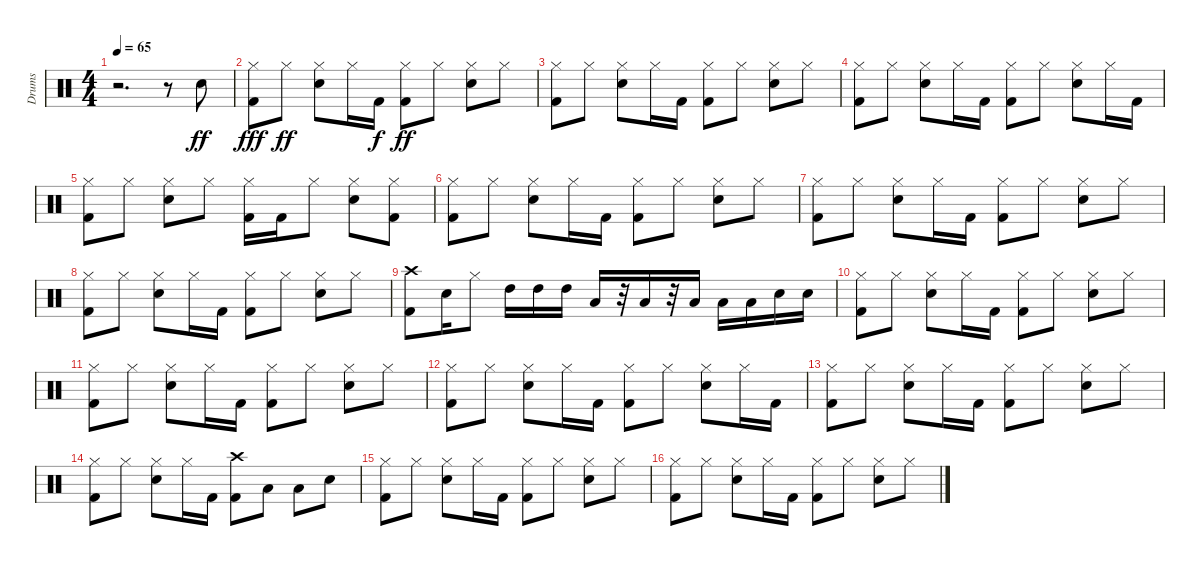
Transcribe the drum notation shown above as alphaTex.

\track ("Drums" "Drums") {instrument percussion}
\staff {score}
\articulation defaults
\ts (4 4)
\tempo 65
\clef neutral
\ks c
r.2{d dy ff} r.8 "Electric Snare (hit)".8 |
("Hi-Hat (closed)" "Kick (hit) 2").8{dy fff} "Hi-Hat (closed)".8{dy ff} ("Snare (hit) 2" "Hi-Hat (closed)").8 "Hi-Hat (closed)".16 "Kick (hit) 2".16{dy f} ("Kick (hit) 2" "Hi-Hat (closed)").8{dy ff} "Hi-Hat (closed)".8 ("Hi-Hat (closed)" "Snare (hit) 2").8 "Hi-Hat (closed)".8 |
("Kick (hit) 2" "Hi-Hat (closed)").8 "Hi-Hat (closed)".8 ("Snare (hit) 2" "Hi-Hat (closed)").8 "Hi-Hat (closed)".16 "Kick (hit) 2".16 ("Kick (hit) 2" "Hi-Hat (closed)").8 "Hi-Hat (closed)".8 ("Hi-Hat (closed)" "Snare (hit) 2").8 "Hi-Hat (closed)".8 |
("Kick (hit) 2" "Hi-Hat (closed)").8 "Hi-Hat (closed)".8 ("Snare (hit) 2" "Hi-Hat (closed)").8 "Hi-Hat (closed)".16 "Kick (hit) 2".16 ("Kick (hit) 2" "Hi-Hat (closed)").8 "Hi-Hat (closed)".8 ("Hi-Hat (closed)" "Snare (hit) 2").8 "Hi-Hat (closed)".16 "Kick (hit) 2".16 |
("Kick (hit) 2" "Hi-Hat (closed)").8 "Hi-Hat (closed)".8 ("Snare (hit) 2" "Hi-Hat (closed)").8 "Hi-Hat (closed)".8 ("Kick (hit) 2" "Hi-Hat (closed)").16 "Kick (hit) 2".16 "Hi-Hat (closed)".8 ("Hi-Hat (closed)" "Snare (hit) 2").8 ("Kick (hit) 2" "Hi-Hat (closed)").8 |
("Kick (hit) 2" "Hi-Hat (closed)").8 "Hi-Hat (closed)".8 ("Snare (hit) 2" "Hi-Hat (closed)").8 "Hi-Hat (closed)".16 "Kick (hit) 2".16 ("Kick (hit) 2" "Hi-Hat (closed)").8 "Hi-Hat (closed)".8 ("Hi-Hat (closed)" "Snare (hit) 2").8 "Hi-Hat (closed)".8 |
("Kick (hit) 2" "Hi-Hat (closed)").8 "Hi-Hat (closed)".8 ("Snare (hit) 2" "Hi-Hat (closed)").8 "Hi-Hat (closed)".16 "Kick (hit) 2".16 ("Kick (hit) 2" "Hi-Hat (closed)").8 "Hi-Hat (closed)".8 ("Hi-Hat (closed)" "Snare (hit) 2").8 "Hi-Hat (closed)".8 |
("Hi-Hat (closed)" "Kick (hit) 2").8 "Hi-Hat (closed)".8 ("Snare (hit) 2" "Hi-Hat (closed)").8 "Hi-Hat (closed)".16 "Kick (hit) 2".16 ("Hi-Hat (closed)" "Kick (hit) 2").8 "Hi-Hat (closed)".8 ("Hi-Hat (closed)" "Snare (hit) 2").8 "Hi-Hat (closed)".8 |
("Crash high (hit)" "Kick (hit) 2").8 "Electric Snare (hit)".16 "Hi-Hat (closed)".8 "High Tom (hit)".16 "High Tom (hit)".16 "High Tom (hit)".16 "Low Tom (hit)".16 r.32 "Low Tom (hit)".16 r.32 "Low Floor Tom (hit)".16 "Low Floor Tom (hit)".16 "Low Floor Tom (hit)".16 "Snare (hit) 2".16 "Snare (hit) 2".16 |
("Hi-Hat (closed)" "Kick (hit) 2").8 "Hi-Hat (closed)".8 ("Snare (hit) 2" "Hi-Hat (closed)").8 "Hi-Hat (closed)".16 "Kick (hit) 2".16 ("Hi-Hat (closed)" "Kick (hit) 2").8 "Hi-Hat (closed)".8 ("Hi-Hat (closed)" "Snare (hit) 2").8 "Hi-Hat (closed)".8 |
("Hi-Hat (closed)" "Kick (hit) 2").8 "Hi-Hat (closed)".8 ("Snare (hit) 2" "Hi-Hat (closed)").8 "Hi-Hat (closed)".16 "Kick (hit) 2".16 ("Hi-Hat (closed)" "Kick (hit) 2").8 "Hi-Hat (closed)".8 ("Hi-Hat (closed)" "Snare (hit) 2").8 "Hi-Hat (closed)".8 |
("Hi-Hat (closed)" "Kick (hit) 2").8 "Hi-Hat (closed)".8 ("Snare (hit) 2" "Hi-Hat (closed)").8 "Hi-Hat (closed)".16 "Kick (hit) 2".16 ("Hi-Hat (closed)" "Kick (hit) 2").8 "Hi-Hat (closed)".8 ("Hi-Hat (closed)" "Snare (hit) 2").8 "Hi-Hat (closed)".16 "Kick (hit) 2".16 |
("Hi-Hat (closed)" "Kick (hit) 2").8 "Hi-Hat (closed)".8 ("Snare (hit) 2" "Hi-Hat (closed)").8 "Hi-Hat (closed)".16 "Kick (hit) 2".16 ("Hi-Hat (closed)" "Kick (hit) 2").8 "Hi-Hat (closed)".8 ("Hi-Hat (closed)" "Snare (hit) 2").8 "Hi-Hat (closed)".8 |
("Hi-Hat (closed)" "Kick (hit) 2").8 "Hi-Hat (closed)".8 ("Snare (hit) 2" "Hi-Hat (closed)").8 "Hi-Hat (closed)".16 "Kick (hit) 2".16 ("Crash high (hit)" "Kick (hit) 2").8 "Low Floor Tom (hit)".8 "Low Floor Tom (hit)".8 "Snare (hit) 2".8 |
("Hi-Hat (closed)" "Kick (hit) 2").8 "Hi-Hat (closed)".8 ("Snare (hit) 2" "Hi-Hat (closed)").8 "Hi-Hat (closed)".16 "Kick (hit) 2".16 ("Hi-Hat (closed)" "Kick (hit) 2").8 "Hi-Hat (closed)".8 ("Hi-Hat (closed)" "Snare (hit) 2").8 "Hi-Hat (closed)".8 |
("Hi-Hat (closed)" "Kick (hit) 2").8 "Hi-Hat (closed)".8 ("Snare (hit) 2" "Hi-Hat (closed)").8 "Hi-Hat (closed)".16 "Kick (hit) 2".16 ("Hi-Hat (closed)" "Kick (hit) 2").8 "Hi-Hat (closed)".8 ("Hi-Hat (closed)" "Snare (hit) 2").8 "Hi-Hat (closed)".8
